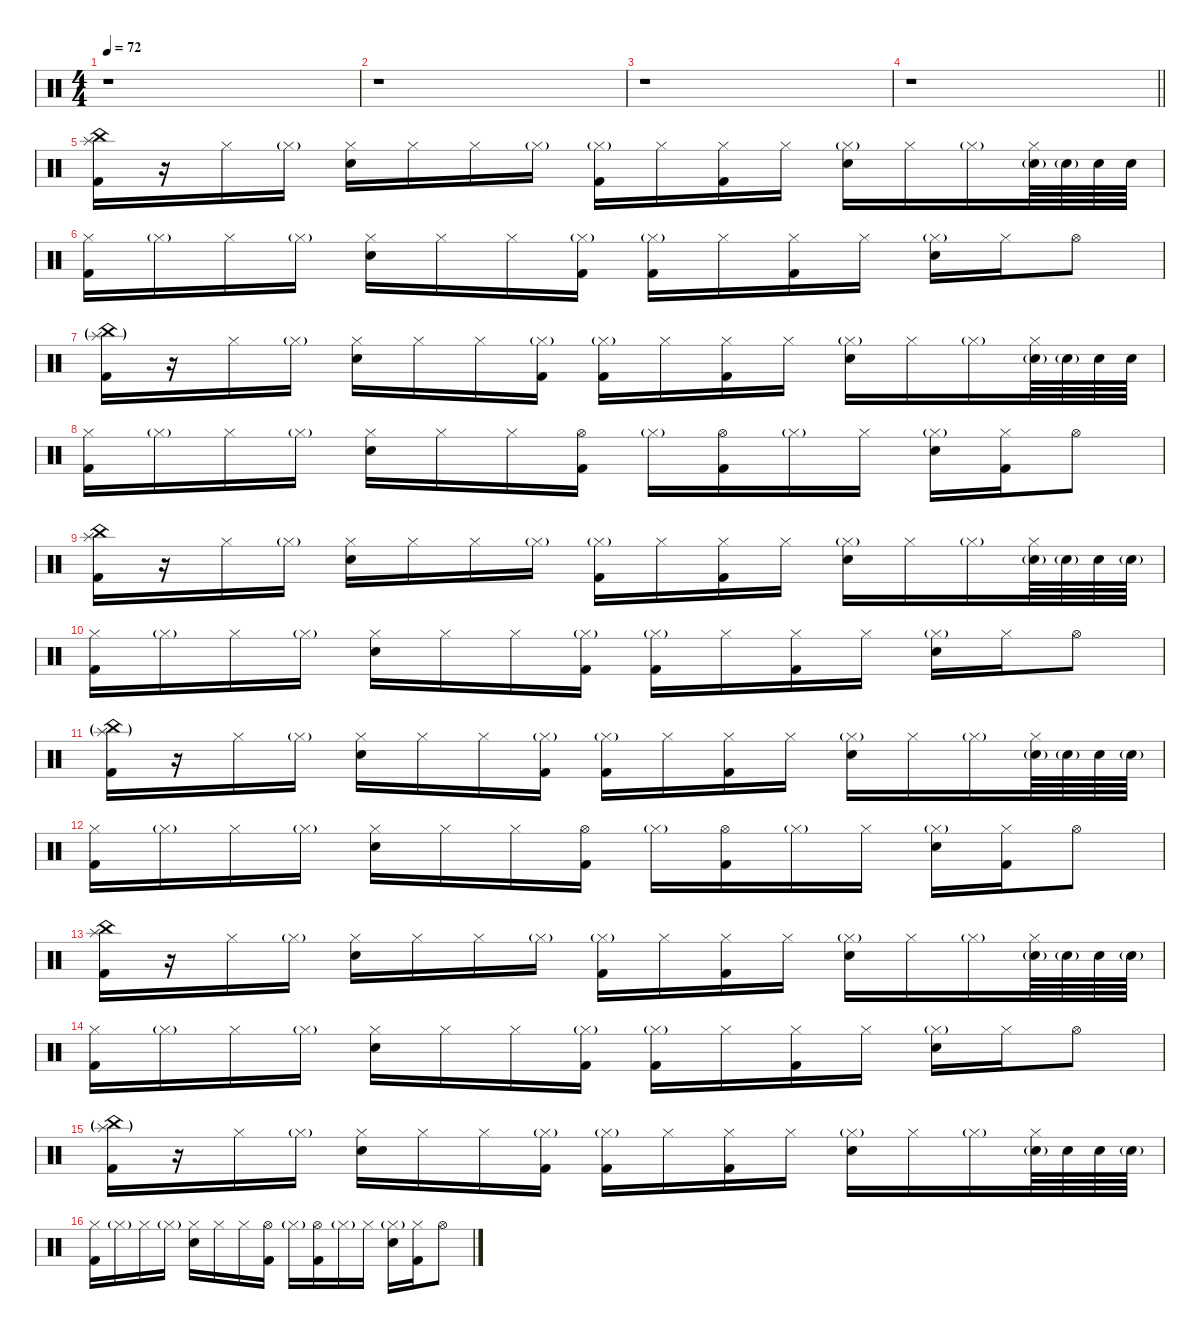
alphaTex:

\defaultSystemsLayout 4
\hideDynamics
\bracketExtendMode nobrackets
\singleTrackTrackNamePolicy hidden
\multiTrackTrackNamePolicy hidden
\firstSystemTrackNameMode fullname
\firstSystemTrackNameOrientation horizontal
\otherSystemsTrackNameOrientation horizontal
\track ("Drums" "drm.") {instrument percussion}
\staff {score}
\articulation defaults
\ts (4 4)
\tempo 72
\clef neutral
\ks c
r.1{dy f beam Down} |
r.1{beam Down} |
r.1{beam Down} |
\barLineRight lightlight
r.1{beam Down} |
("Splash (hit)" "China (hit)" "Kick (hit) 2").16{beam Down} r.16{beam Down} "Hi-Hat (closed)".16{beam Down} "Hi-Hat (closed)"{g}.16{dy mf beam Down} ("Hi-Hat (closed)" "Snare (hit) 2").16{dy f beam Down} "Hi-Hat (closed)".16{beam Down} "Hi-Hat (closed)".16{beam Down} "Hi-Hat (closed)"{g}.16{dy mf beam Down} ("Hi-Hat (closed)"{g} "Kick (hit) 2").16{dy f beam Down} "Hi-Hat (closed)".16{beam Down} ("Hi-Hat (closed)" "Kick (hit) 2").16{beam Down} "Hi-Hat (closed)".16{beam Down} ("Hi-Hat (closed)"{g} "Snare (hit) 2").16{beam Down} "Hi-Hat (closed)".16{beam Down} "Hi-Hat (closed)"{g}.16{dy mf beam Down} ("Hi-Hat (closed)" "Snare (hit) 2"{g}).64{dy f beam Down} "Snare (hit) 2"{g}.64{beam Down} "Snare (hit) 2".64{beam Down} "Snare (hit) 2".64{dy ff beam Down} |
("Hi-Hat (closed)" "Kick (hit) 2").16{dy f beam Down} "Hi-Hat (closed)"{g}.16{dy mf beam Down} "Hi-Hat (closed)".16{dy f beam Down} "Hi-Hat (closed)"{g}.16{dy mf beam Down} ("Hi-Hat (closed)" "Snare (hit) 2").16{dy f beam Down} "Hi-Hat (closed)".16{beam Down} "Hi-Hat (closed)".16{beam Down} ("Hi-Hat (closed)"{g} "Kick (hit) 2").16{beam Down} ("Hi-Hat (closed)"{g} "Kick (hit) 2").16{beam Down} "Hi-Hat (closed)".16{beam Down} ("Hi-Hat (closed)" "Kick (hit) 2").16{beam Down} "Hi-Hat (closed)".16{beam Down} ("Hi-Hat (closed)"{g} "Snare (hit) 2").16{beam Down} "Hi-Hat (closed)".16{beam Down} "Hi-Hat (open)".8{beam Down} |
("Splash (hit)"{g} "China (hit)"{g} "Kick (hit) 2").16{beam Down} r.16{beam Down} "Hi-Hat (closed)".16{beam Down} "Hi-Hat (closed)"{g}.16{dy mf beam Down} ("Hi-Hat (closed)" "Snare (hit) 2").16{dy f beam Down} "Hi-Hat (closed)".16{beam Down} "Hi-Hat (closed)".16{beam Down} ("Hi-Hat (closed)"{g} "Kick (hit) 2").16{beam Down} ("Hi-Hat (closed)"{g} "Kick (hit) 2").16{beam Down} "Hi-Hat (closed)".16{beam Down} ("Hi-Hat (closed)" "Kick (hit) 2").16{beam Down} "Hi-Hat (closed)".16{beam Down} ("Hi-Hat (closed)"{g} "Snare (hit) 2").16{beam Down} "Hi-Hat (closed)".16{beam Down} "Hi-Hat (closed)"{g}.16{dy mf beam Down} ("Hi-Hat (closed)" "Snare (hit) 2"{g}).64{dy f beam Down} "Snare (hit) 2"{g}.64{dy mf beam Down} "Snare (hit) 2".64{dy f beam Down} "Snare (hit) 2".64{dy mf beam Down} |
("Hi-Hat (closed)" "Kick (hit) 2").16{dy f beam Down} "Hi-Hat (closed)"{g}.16{dy mf beam Down} "Hi-Hat (closed)".16{dy f beam Down} "Hi-Hat (closed)"{g}.16{dy mf beam Down} ("Hi-Hat (closed)" "Snare (hit) 2").16{dy f beam Down} "Hi-Hat (closed)".16{beam Down} "Hi-Hat (closed)".16{beam Down} ("Hi-Hat (open)" "Kick (hit) 2").16{beam Down} "Hi-Hat (closed)"{g}.16{dy mf beam Down} ("Hi-Hat (open)" "Kick (hit) 2").16{dy f beam Down} "Hi-Hat (closed)"{g}.16{dy mf beam Down} "Hi-Hat (closed)".16{dy f beam Down} ("Hi-Hat (closed)"{g} "Snare (hit) 2").16{beam Down} ("Hi-Hat (closed)" "Kick (hit) 2").16{beam Down} "Hi-Hat (open)".8{beam Down} |
("Splash (hit)" "China (hit)" "Kick (hit) 2").16{beam Down} r.16{beam Down} "Hi-Hat (closed)".16{beam Down} "Hi-Hat (closed)"{g}.16{dy mf beam Down} ("Hi-Hat (closed)" "Snare (hit) 2").16{dy f beam Down} "Hi-Hat (closed)".16{beam Down} "Hi-Hat (closed)".16{beam Down} "Hi-Hat (closed)"{g}.16{dy mf beam Down} ("Hi-Hat (closed)"{g} "Kick (hit) 2").16{dy f beam Down} "Hi-Hat (closed)".16{beam Down} ("Hi-Hat (closed)" "Kick (hit) 2").16{beam Down} "Hi-Hat (closed)".16{beam Down} ("Hi-Hat (closed)"{g} "Snare (hit) 2").16{beam Down} "Hi-Hat (closed)".16{beam Down} "Hi-Hat (closed)"{g}.16{dy mf beam Down} ("Hi-Hat (closed)" "Snare (hit) 2"{g}).64{dy f beam Down} "Snare (hit) 2"{g}.64{dy mf beam Down} "Snare (hit) 2".64{dy f beam Down} "Snare (hit) 2"{g}.64{dy mf beam Down} |
("Hi-Hat (closed)" "Kick (hit) 2").16{dy f beam Down} "Hi-Hat (closed)"{g}.16{dy mf beam Down} "Hi-Hat (closed)".16{dy f beam Down} "Hi-Hat (closed)"{g}.16{dy mf beam Down} ("Hi-Hat (closed)" "Snare (hit) 2").16{dy f beam Down} "Hi-Hat (closed)".16{beam Down} "Hi-Hat (closed)".16{beam Down} ("Hi-Hat (closed)"{g} "Kick (hit) 2").16{beam Down} ("Hi-Hat (closed)"{g} "Kick (hit) 2").16{beam Down} "Hi-Hat (closed)".16{beam Down} ("Hi-Hat (closed)" "Kick (hit) 2").16{beam Down} "Hi-Hat (closed)".16{beam Down} ("Hi-Hat (closed)"{g} "Snare (hit) 2").16{beam Down} "Hi-Hat (closed)".16{beam Down} "Hi-Hat (open)".8{beam Down} |
("Splash (hit)"{g} "China (hit)"{g} "Kick (hit) 2").16{beam Down} r.16{beam Down} "Hi-Hat (closed)".16{beam Down} "Hi-Hat (closed)"{g}.16{dy mf beam Down} ("Hi-Hat (closed)" "Snare (hit) 2").16{dy f beam Down} "Hi-Hat (closed)".16{beam Down} "Hi-Hat (closed)".16{beam Down} ("Hi-Hat (closed)"{g} "Kick (hit) 2").16{beam Down} ("Hi-Hat (closed)"{g} "Kick (hit) 2").16{beam Down} "Hi-Hat (closed)".16{beam Down} ("Hi-Hat (closed)" "Kick (hit) 2").16{beam Down} "Hi-Hat (closed)".16{beam Down} ("Hi-Hat (closed)"{g} "Snare (hit) 2").16{beam Down} "Hi-Hat (closed)".16{beam Down} "Hi-Hat (closed)"{g}.16{dy mf beam Down} ("Hi-Hat (closed)" "Snare (hit) 2"{g}).64{beam Down} "Snare (hit) 2"{g}.64{dy mp beam Down} "Snare (hit) 2".64{dy mf beam Down} "Snare (hit) 2"{g}.64{dy mp beam Down} |
("Hi-Hat (closed)" "Kick (hit) 2").16{dy f beam Down} "Hi-Hat (closed)"{g}.16{dy mf beam Down} "Hi-Hat (closed)".16{dy f beam Down} "Hi-Hat (closed)"{g}.16{dy mf beam Down} ("Hi-Hat (closed)" "Snare (hit) 2").16{dy f beam Down} "Hi-Hat (closed)".16{beam Down} "Hi-Hat (closed)".16{beam Down} ("Hi-Hat (open)" "Kick (hit) 2").16{beam Down} "Hi-Hat (closed)"{g}.16{dy mf beam Down} ("Hi-Hat (open)" "Kick (hit) 2").16{dy f beam Down} "Hi-Hat (closed)"{g}.16{dy mf beam Down} "Hi-Hat (closed)".16{dy f beam Down} ("Hi-Hat (closed)"{g} "Snare (hit) 2").16{beam Down} ("Hi-Hat (closed)" "Kick (hit) 2").16{beam Down} "Hi-Hat (open)".8{beam Down} |
("Splash (hit)" "China (hit)" "Kick (hit) 2").16{beam Down} r.16{beam Down} "Hi-Hat (closed)".16{beam Down} "Hi-Hat (closed)"{g}.16{dy mf beam Down} ("Hi-Hat (closed)" "Snare (hit) 2").16{dy f beam Down} "Hi-Hat (closed)".16{beam Down} "Hi-Hat (closed)".16{beam Down} "Hi-Hat (closed)"{g}.16{dy mf beam Down} ("Hi-Hat (closed)"{g} "Kick (hit) 2").16{dy f beam Down} "Hi-Hat (closed)".16{beam Down} ("Hi-Hat (closed)" "Kick (hit) 2").16{beam Down} "Hi-Hat (closed)".16{beam Down} ("Hi-Hat (closed)"{g} "Snare (hit) 2").16{beam Down} "Hi-Hat (closed)".16{beam Down} "Hi-Hat (closed)"{g}.16{dy mf beam Down} ("Hi-Hat (closed)" "Snare (hit) 2"{g}).64{dy f beam Down} "Snare (hit) 2"{g}.64{dy mf beam Down} "Snare (hit) 2".64{dy f beam Down} "Snare (hit) 2"{g}.64{dy mf beam Down} |
("Hi-Hat (closed)" "Kick (hit) 2").16{dy f beam Down} "Hi-Hat (closed)"{g}.16{dy mf beam Down} "Hi-Hat (closed)".16{dy f beam Down} "Hi-Hat (closed)"{g}.16{dy mf beam Down} ("Hi-Hat (closed)" "Snare (hit) 2").16{dy f beam Down} "Hi-Hat (closed)".16{beam Down} "Hi-Hat (closed)".16{beam Down} ("Hi-Hat (closed)"{g} "Kick (hit) 2").16{beam Down} ("Hi-Hat (closed)"{g} "Kick (hit) 2").16{beam Down} "Hi-Hat (closed)".16{beam Down} ("Hi-Hat (closed)" "Kick (hit) 2").16{beam Down} "Hi-Hat (closed)".16{beam Down} ("Hi-Hat (closed)"{g} "Snare (hit) 2").16{beam Down} "Hi-Hat (closed)".16{beam Down} "Hi-Hat (open)".8{beam Down} |
("Splash (hit)"{g} "China (hit)"{g} "Kick (hit) 2").16{beam Down} r.16{beam Down} "Hi-Hat (closed)".16{beam Down} "Hi-Hat (closed)"{g}.16{dy mf beam Down} ("Hi-Hat (closed)" "Snare (hit) 2").16{dy f beam Down} "Hi-Hat (closed)".16{beam Down} "Hi-Hat (closed)".16{beam Down} ("Hi-Hat (closed)"{g} "Kick (hit) 2").16{beam Down} ("Hi-Hat (closed)"{g} "Kick (hit) 2").16{beam Down} "Hi-Hat (closed)".16{beam Down} ("Hi-Hat (closed)" "Kick (hit) 2").16{beam Down} "Hi-Hat (closed)".16{beam Down} ("Hi-Hat (closed)"{g} "Snare (hit) 2").16{beam Down} "Hi-Hat (closed)".16{beam Down} "Hi-Hat (closed)"{g}.16{dy mf beam Down} ("Hi-Hat (closed)" "Snare (hit) 2"{g}).64{dy f beam Down} "Snare (hit) 2".64{dy mp beam Down} "Snare (hit) 2".64{dy mf beam Down} "Snare (hit) 2"{g}.64{beam Down} |
("Hi-Hat (closed)" "Kick (hit) 2").16{dy f beam Down} "Hi-Hat (closed)"{g}.16{dy mf beam Down} "Hi-Hat (closed)".16{dy f beam Down} "Hi-Hat (closed)"{g}.16{dy mf beam Down} ("Hi-Hat (closed)" "Snare (hit) 2").16{dy f beam Down} "Hi-Hat (closed)".16{beam Down} "Hi-Hat (closed)".16{beam Down} ("Hi-Hat (open)" "Kick (hit) 2").16{beam Down} "Hi-Hat (closed)"{g}.16{dy mf beam Down} ("Hi-Hat (open)" "Kick (hit) 2").16{dy f beam Down} "Hi-Hat (closed)"{g}.16{dy mf beam Down} "Hi-Hat (closed)".16{dy f beam Down} ("Hi-Hat (closed)"{g} "Snare (hit) 2").16{beam Down} ("Hi-Hat (closed)" "Kick (hit) 2").16{beam Down} "Hi-Hat (open)".8{beam Down}
